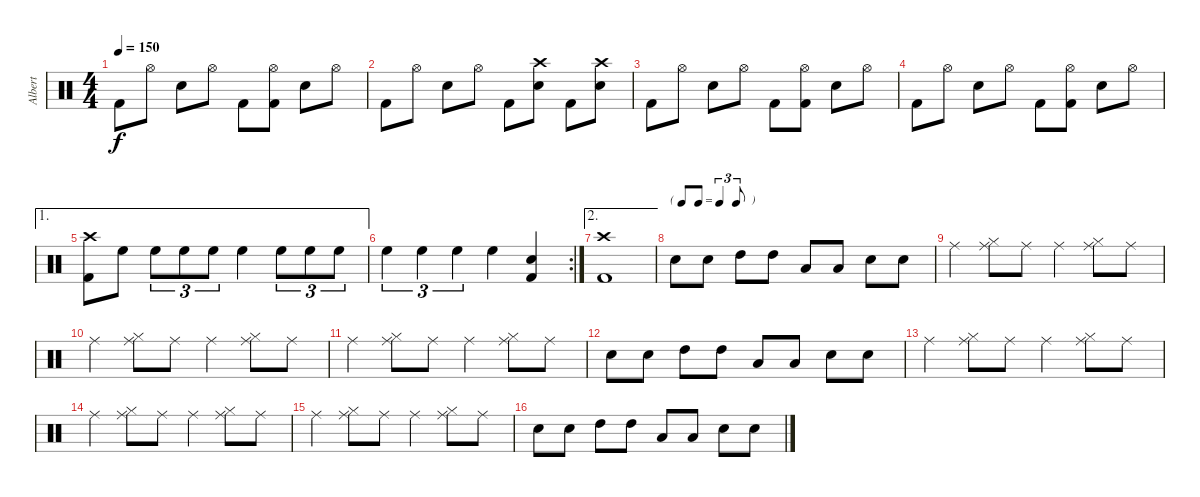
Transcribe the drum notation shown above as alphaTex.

\track ("Albert" "Albert") {instrument percussion}
\staff {score}
\articulation defaults
\ts (4 4)
\tempo 150
\clef neutral
\ks c "Kick (hit) 2".8{dy f} "Hi-Hat (open)".8 "Electric Snare (hit)".8 "Hi-Hat (open)".8 "Kick (hit) 2".8
("Hi-Hat (open)" "Kick (hit) 2").8 "Electric Snare (hit)".8 "Hi-Hat (open)".8 |
"Kick (hit) 2".8 "Hi-Hat (open)".8 "Electric Snare (hit)".8 "Hi-Hat (open)".8 "Kick (hit) 2".8 ("Crash high (hit)" "Electric Snare (hit)").8 "Kick (hit) 2".8 ("Crash high (hit)" "Electric Snare (hit)").8 |
"Kick (hit) 2".8 "Hi-Hat (open)".8 "Electric Snare (hit)".8 "Hi-Hat (open)".8 "Kick (hit) 2".8 ("Hi-Hat (open)" "Kick (hit) 2").8 "Electric Snare (hit)".8 "Hi-Hat (open)".8 |
"Kick (hit) 2".8 "Hi-Hat (open)".8 "Electric Snare (hit)".8 "Hi-Hat (open)".8 "Kick (hit) 2".8 ("Hi-Hat (open)" "Kick (hit) 2").8 "Electric Snare (hit)".8 "Hi-Hat (open)".8 |
\ae 1
("Crash high (hit)" "Kick (hit) 2").8 "High Floor Tom (hit)".8 "High Floor Tom (hit)".8{tu (3 2)} "High Floor Tom (hit)".8{tu (3 2)} "High Floor Tom (hit)".8{tu (3 2)} "High Floor Tom (hit)".4 "High Floor Tom (hit)".8{tu (3 2)} "High Floor Tom (hit)".8{tu (3 2)} "High Floor Tom (hit)".8{tu (3 2)} |
\rc 2 "High Floor Tom (hit)".4{tu (3 2)} "High Floor Tom (hit)".4{tu (3 2)} "High Floor Tom (hit)".4{tu (3 2)} "High Floor Tom (hit)".4
("Electric Snare (hit)" "Kick (hit) 2").4 |
\ae 2
("Crash high (hit)" "Kick (hit) 2").1 |
\tf triplet8th "Electric Snare (hit)".8 "Electric Snare (hit)".8 "High Tom (hit)".8 "High Tom (hit)".8 "Low Tom (hit)".8 "Low Tom (hit)".8 "Electric Snare (hit)".8 "Electric Snare (hit)".8
|
"Ride (middle)".4 ("Ride (middle)" "Hi-Hat (closed)").8 "Ride (middle)".8 "Ride (middle)".4 ("Ride (middle)" "Hi-Hat (closed)").8 "Ride (middle)".8 |
"Ride (middle)".4 ("Ride (middle)" "Hi-Hat (closed)").8 "Ride (middle)".8 "Ride (middle)".4 ("Ride (middle)" "Hi-Hat (closed)").8 "Ride (middle)".8 |
"Ride (middle)".4 ("Ride (middle)" "Hi-Hat (closed)").8 "Ride (middle)".8 "Ride (middle)".4 ("Ride (middle)" "Hi-Hat (closed)").8 "Ride (middle)".8 |
"Electric Snare (hit)".8 "Electric Snare (hit)".8 "High Tom (hit)".8 "High Tom (hit)".8 "Low Tom (hit)".8 "Low Tom (hit)".8 "Electric Snare (hit)".8 "Electric Snare (hit)".8 |
"Ride (middle)".4 ("Ride (middle)" "Hi-Hat (closed)").8 "Ride (middle)".8 "Ride (middle)".4 ("Ride (middle)" "Hi-Hat (closed)").8 "Ride (middle)".8 |
"Ride (middle)".4 ("Ride (middle)" "Hi-Hat (closed)").8 "Ride (middle)".8 "Ride (middle)".4 ("Ride (middle)" "Hi-Hat (closed)").8 "Ride (middle)".8 |
"Ride (middle)".4 ("Ride (middle)" "Hi-Hat (closed)").8 "Ride (middle)".8 "Ride (middle)".4 ("Ride (middle)" "Hi-Hat (closed)").8 "Ride (middle)".8 |
"Electric Snare (hit)".8 "Electric Snare (hit)".8 "High Tom (hit)".8 "High Tom (hit)".8 "Low Tom (hit)".8 "Low Tom (hit)".8 "Electric Snare (hit)".8 "Electric Snare (hit)".8
